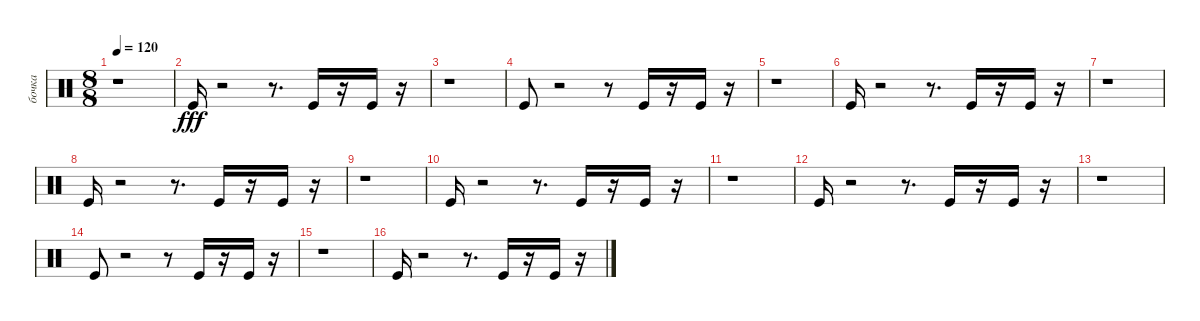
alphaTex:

\track ("бочка" "бочка") {instrument percussion}
\staff {score}
\articulation defaults
\ts (8 8)
\tempo 120
\clef neutral
\ks c
r.1{dy fff} |
"Kick (hit)".16 r.2 r.8{d} "Kick (hit)".16 r.16 "Kick (hit)".16 r.16 |
r.1 |
"Kick (hit)".8 r.2 r.8 "Kick (hit)".16 r.16 "Kick (hit)".16 r.16 |
r.1 |
"Kick (hit)".16 r.2 r.8{d} "Kick (hit)".16 r.16 "Kick (hit)".16 r.16 |
r.1 |
"Kick (hit)".16 r.2 r.8{d} "Kick (hit)".16 r.16 "Kick (hit)".16 r.16 |
r.1 |
"Kick (hit)".16 r.2 r.8{d} "Kick (hit)".16 r.16 "Kick (hit)".16 r.16 |
r.1 |
"Kick (hit)".16 r.2 r.8{d} "Kick (hit)".16 r.16 "Kick (hit)".16 r.16 |
r.1 |
"Kick (hit)".8 r.2 r.8 "Kick (hit)".16 r.16 "Kick (hit)".16 r.16 |
r.1 |
"Kick (hit)".16 r.2 r.8{d} "Kick (hit)".16 r.16 "Kick (hit)".16 r.16
